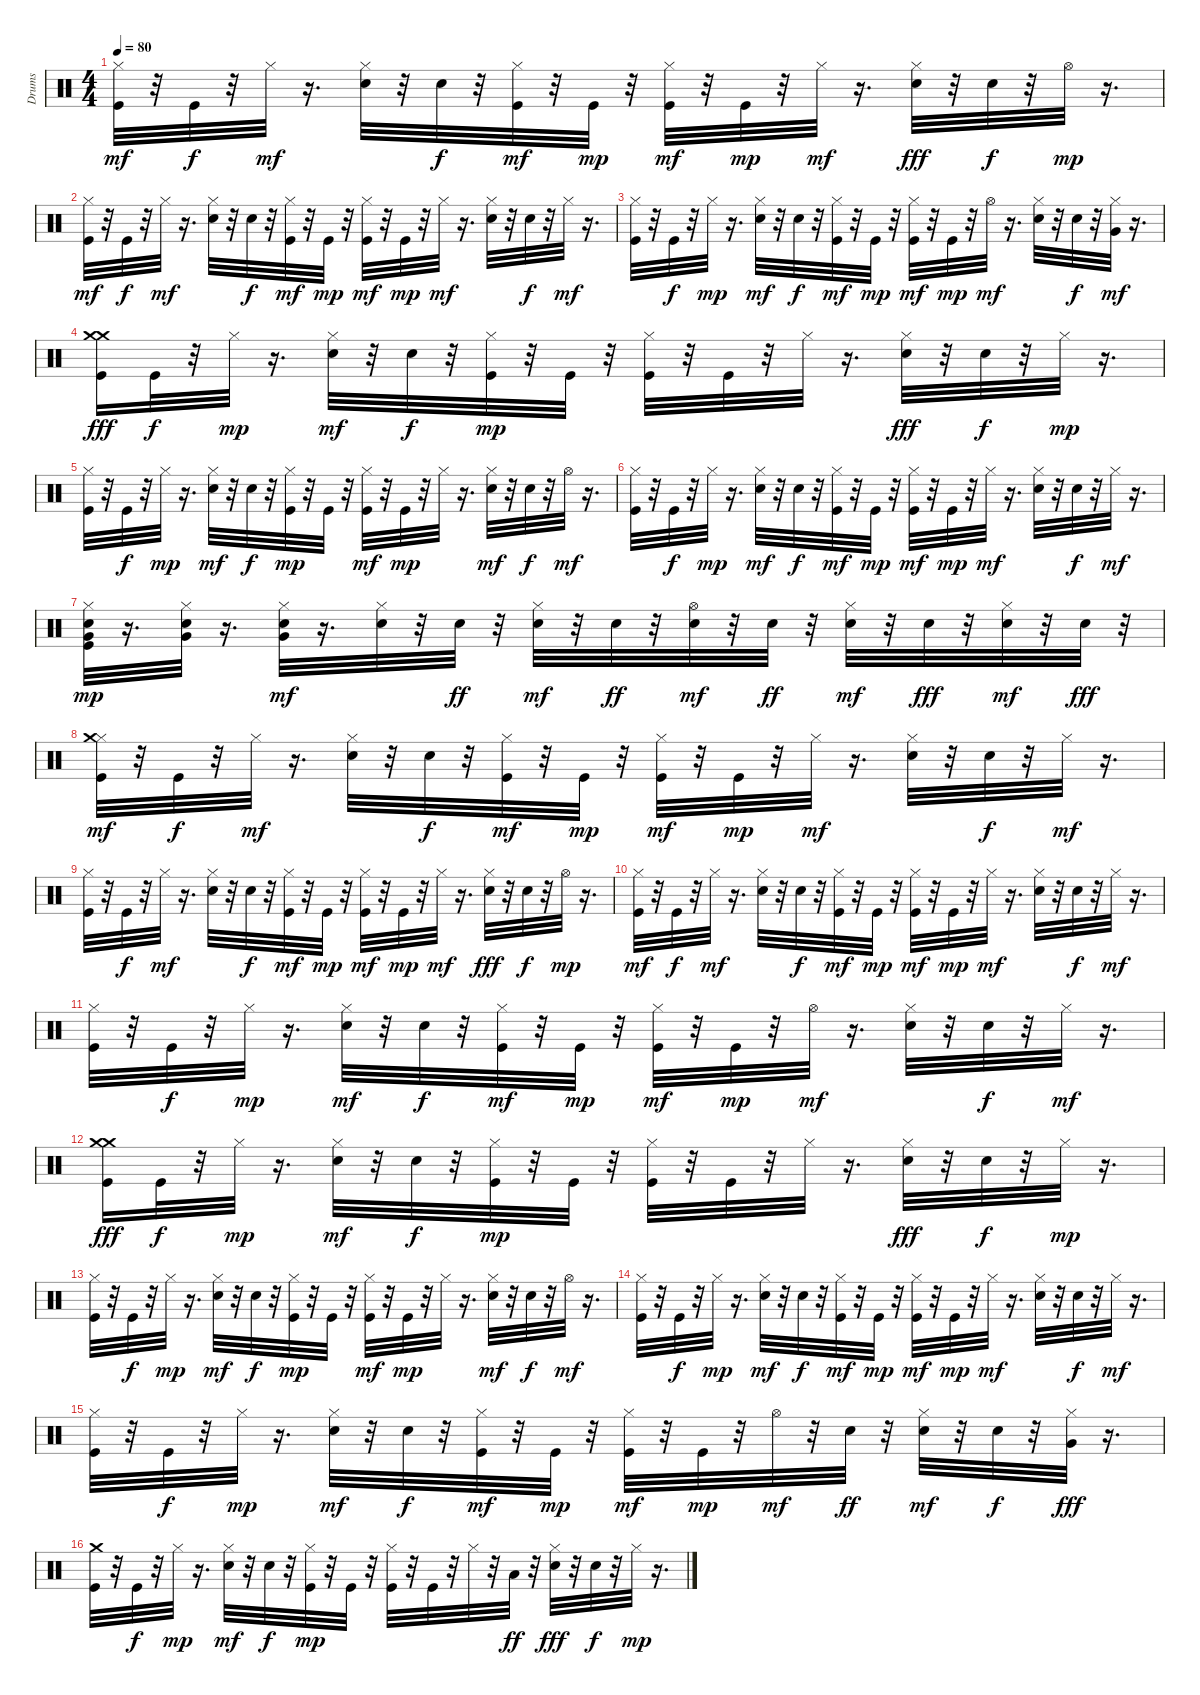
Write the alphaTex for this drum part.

\track ("Drums" "Drums") {instrument percussion}
\staff {score}
\articulation defaults
\ts (4 4)
\tempo 80
\clef neutral
\ks c
("Kick (hit)" "Hi-Hat (closed)").32{dy mf} r.32 "Kick (hit)".32{dy f} r.32 "Hi-Hat (closed)".32{dy mf} r.16{d} ("Snare (hit) 2" "Hi-Hat (closed)").32 r.32 "Snare (hit) 2".32{dy f} r.32 ("Kick (hit)" "Hi-Hat (closed)").32{dy mf} r.32 "Kick (hit)".32{dy mp} r.32 ("Kick (hit)" "Hi-Hat (closed)").32{dy mf} r.32 "Kick (hit)".32{dy mp} r.32 "Hi-Hat (closed)".32{dy mf} r.16{d} ("Snare (hit) 2" "Hi-Hat (closed)").32{dy fff} r.32 "Snare (hit) 2".32{dy f} r.32 "Hi-Hat (open)".32{dy mp} r.16{d} |
("Kick (hit)" "Hi-Hat (closed)").32{dy mf} r.32 "Kick (hit)".32{dy f} r.32 "Hi-Hat (closed)".32{dy mf} r.16{d} ("Snare (hit) 2" "Hi-Hat (closed)").32 r.32 "Snare (hit) 2".32{dy f} r.32 ("Kick (hit)" "Hi-Hat (closed)").32{dy mf} r.32 "Kick (hit)".32{dy mp} r.32 ("Kick (hit)" "Hi-Hat (closed)").32{dy mf} r.32 "Kick (hit)".32{dy mp} r.32 "Hi-Hat (closed)".32{dy mf} r.16{d} ("Snare (hit) 2" "Hi-Hat (closed)").32 r.32 "Snare (hit) 2".32{dy f} r.32 "Hi-Hat (closed)".32{dy mf} r.16{d} |
("Kick (hit)" "Hi-Hat (closed)").32 r.32 "Kick (hit)".32{dy f} r.32 "Hi-Hat (closed)".32{dy mp} r.16{d} ("Snare (hit) 2" "Hi-Hat (closed)").32{dy mf} r.32 "Snare (hit) 2".32{dy f} r.32 ("Kick (hit)" "Hi-Hat (closed)").32{dy mf} r.32 "Kick (hit)".32{dy mp} r.32 ("Kick (hit)" "Hi-Hat (closed)").32{dy mf} r.32 "Kick (hit)".32{dy mp} r.32 "Hi-Hat (open)".32{dy mf} r.16{d} ("Snare (hit) 2" "Hi-Hat (closed)").32 r.32 "Snare (hit) 2".32{dy f} r.32 ("Hi-Hat (closed)" "Very Low Tom (hit)").32{dy mf} r.16{d} |
("Kick (hit)" "Crash medium (hit)" "Crash medium (hit)").16{dy fff} "Kick (hit)".32{dy f} r.32 "Hi-Hat (closed)".32{dy mp} r.16{d} ("Snare (hit) 2" "Hi-Hat (closed)").32{dy mf} r.32 "Snare (hit) 2".32{dy f} r.32 ("Kick (hit)" "Hi-Hat (closed)").32{dy mp} r.32 "Kick (hit)".32 r.32 ("Kick (hit)" "Hi-Hat (closed)").32 r.32 "Kick (hit)".32 r.32 "Hi-Hat (closed)".32 r.16{d} ("Snare (hit) 2" "Hi-Hat (closed)").32{dy fff} r.32 "Snare (hit) 2".32{dy f} r.32 "Hi-Hat (closed)".32{dy mp} r.16{d} |
("Kick (hit)" "Hi-Hat (closed)").32 r.32 "Kick (hit)".32{dy f} r.32 "Hi-Hat (closed)".32{dy mp} r.16{d} ("Snare (hit) 2" "Hi-Hat (closed)").32{dy mf} r.32 "Snare (hit) 2".32{dy f} r.32 ("Kick (hit)" "Hi-Hat (closed)").32{dy mp} r.32 "Kick (hit)".32 r.32 ("Kick (hit)" "Hi-Hat (closed)").32{dy mf} r.32 "Kick (hit)".32{dy mp} r.32 "Hi-Hat (closed)".32 r.16{d} ("Snare (hit) 2" "Hi-Hat (closed)").32{dy mf} r.32 "Snare (hit) 2".32{dy f} r.32 "Hi-Hat (open)".32{dy mf} r.16{d} |
("Kick (hit)" "Hi-Hat (closed)").32 r.32 "Kick (hit)".32{dy f} r.32 "Hi-Hat (closed)".32{dy mp} r.16{d} ("Snare (hit) 2" "Hi-Hat (closed)").32{dy mf} r.32 "Snare (hit) 2".32{dy f} r.32 ("Kick (hit)" "Hi-Hat (closed)").32{dy mf} r.32 "Kick (hit)".32{dy mp} r.32 ("Kick (hit)" "Hi-Hat (closed)").32{dy mf} r.32 "Kick (hit)".32{dy mp} r.32 "Hi-Hat (closed)".32{dy mf} r.16{d} ("Snare (hit) 2" "Hi-Hat (closed)").32 r.32 "Snare (hit) 2".32{dy f} r.32 "Hi-Hat (closed)".32{dy mf} r.16{d} |
("Kick (hit)" "Snare (hit) 2" "Hi-Hat (closed)" "Very Low Tom (hit)").32{dy mp} r.16{d} ("Snare (hit) 2" "Hi-Hat (closed)" "Very Low Tom (hit)").32 r.16{d} ("Snare (hit) 2" "Hi-Hat (closed)" "Very Low Tom (hit)").32{dy mf} r.16{d} ("Snare (hit) 2" "Hi-Hat (closed)").32 r.32 "Snare (hit) 2".32{dy ff} r.32 ("Snare (hit) 2" "Hi-Hat (closed)").32{dy mf} r.32 "Snare (hit) 2".32{dy ff} r.32 ("Snare (hit) 2" "Hi-Hat (open)").32{dy mf} r.32 "Snare (hit) 2".32{dy ff} r.32 ("Snare (hit) 2" "Hi-Hat (closed)").32{dy mf} r.32 "Snare (hit) 2".32{dy fff} r.32 ("Snare (hit) 2" "Hi-Hat (closed)").32{dy mf} r.32 "Snare (hit) 2".32{dy fff} r.32 |
("Kick (hit)" "Hi-Hat (closed)" "Crash medium (hit)").32{dy mf} r.32 "Kick (hit)".32{dy f} r.32 "Hi-Hat (closed)".32{dy mf} r.16{d} ("Snare (hit) 2" "Hi-Hat (closed)").32 r.32 "Snare (hit) 2".32{dy f} r.32 ("Kick (hit)" "Hi-Hat (closed)").32{dy mf} r.32 "Kick (hit)".32{dy mp} r.32 ("Kick (hit)" "Hi-Hat (closed)").32{dy mf} r.32 "Kick (hit)".32{dy mp} r.32 "Hi-Hat (closed)".32{dy mf} r.16{d} ("Snare (hit) 2" "Hi-Hat (closed)").32 r.32 "Snare (hit) 2".32{dy f} r.32 "Hi-Hat (closed)".32{dy mf} r.16{d} |
("Kick (hit)" "Hi-Hat (closed)").32 r.32 "Kick (hit)".32{dy f} r.32 "Hi-Hat (closed)".32{dy mf} r.16{d} ("Snare (hit) 2" "Hi-Hat (closed)").32 r.32 "Snare (hit) 2".32{dy f} r.32 ("Kick (hit)" "Hi-Hat (closed)").32{dy mf} r.32 "Kick (hit)".32{dy mp} r.32 ("Kick (hit)" "Hi-Hat (closed)").32{dy mf} r.32 "Kick (hit)".32{dy mp} r.32 "Hi-Hat (closed)".32{dy mf} r.16{d} ("Snare (hit) 2" "Hi-Hat (closed)").32{dy fff} r.32 "Snare (hit) 2".32{dy f} r.32 "Hi-Hat (open)".32{dy mp} r.16{d} |
("Kick (hit)" "Hi-Hat (closed)").32{dy mf} r.32 "Kick (hit)".32{dy f} r.32 "Hi-Hat (closed)".32{dy mf} r.16{d} ("Snare (hit) 2" "Hi-Hat (closed)").32 r.32 "Snare (hit) 2".32{dy f} r.32 ("Kick (hit)" "Hi-Hat (closed)").32{dy mf} r.32 "Kick (hit)".32{dy mp} r.32 ("Kick (hit)" "Hi-Hat (closed)").32{dy mf} r.32 "Kick (hit)".32{dy mp} r.32 "Hi-Hat (closed)".32{dy mf} r.16{d} ("Snare (hit) 2" "Hi-Hat (closed)").32 r.32 "Snare (hit) 2".32{dy f} r.32 "Hi-Hat (closed)".32{dy mf} r.16{d} |
("Kick (hit)" "Hi-Hat (closed)").32 r.32 "Kick (hit)".32{dy f} r.32 "Hi-Hat (closed)".32{dy mp} r.16{d} ("Snare (hit) 2" "Hi-Hat (closed)").32{dy mf} r.32 "Snare (hit) 2".32{dy f} r.32 ("Kick (hit)" "Hi-Hat (closed)").32{dy mf} r.32 "Kick (hit)".32{dy mp} r.32 ("Kick (hit)" "Hi-Hat (closed)").32{dy mf} r.32 "Kick (hit)".32{dy mp} r.32 "Hi-Hat (open)".32{dy mf} r.16{d} ("Snare (hit) 2" "Hi-Hat (closed)").32 r.32 "Snare (hit) 2".32{dy f} r.32 "Hi-Hat (closed)".32{dy mf} r.16{d} |
("Kick (hit)" "Crash medium (hit)" "Crash medium (hit)").16{dy fff} "Kick (hit)".32{dy f} r.32 "Hi-Hat (closed)".32{dy mp} r.16{d} ("Snare (hit) 2" "Hi-Hat (closed)").32{dy mf} r.32 "Snare (hit) 2".32{dy f} r.32 ("Kick (hit)" "Hi-Hat (closed)").32{dy mp} r.32 "Kick (hit)".32 r.32 ("Kick (hit)" "Hi-Hat (closed)").32 r.32 "Kick (hit)".32 r.32 "Hi-Hat (closed)".32 r.16{d} ("Snare (hit) 2" "Hi-Hat (closed)").32{dy fff} r.32 "Snare (hit) 2".32{dy f} r.32 "Hi-Hat (closed)".32{dy mp} r.16{d} |
("Kick (hit)" "Hi-Hat (closed)").32 r.32 "Kick (hit)".32{dy f} r.32 "Hi-Hat (closed)".32{dy mp} r.16{d} ("Snare (hit) 2" "Hi-Hat (closed)").32{dy mf} r.32 "Snare (hit) 2".32{dy f} r.32 ("Kick (hit)" "Hi-Hat (closed)").32{dy mp} r.32 "Kick (hit)".32 r.32 ("Kick (hit)" "Hi-Hat (closed)").32{dy mf} r.32 "Kick (hit)".32{dy mp} r.32 "Hi-Hat (closed)".32 r.16{d} ("Snare (hit) 2" "Hi-Hat (closed)").32{dy mf} r.32 "Snare (hit) 2".32{dy f} r.32 "Hi-Hat (open)".32{dy mf} r.16{d} |
("Kick (hit)" "Hi-Hat (closed)").32 r.32 "Kick (hit)".32{dy f} r.32 "Hi-Hat (closed)".32{dy mp} r.16{d} ("Snare (hit) 2" "Hi-Hat (closed)").32{dy mf} r.32 "Snare (hit) 2".32{dy f} r.32 ("Kick (hit)" "Hi-Hat (closed)").32{dy mf} r.32 "Kick (hit)".32{dy mp} r.32 ("Kick (hit)" "Hi-Hat (closed)").32{dy mf} r.32 "Kick (hit)".32{dy mp} r.32 "Hi-Hat (closed)".32{dy mf} r.16{d} ("Snare (hit) 2" "Hi-Hat (closed)").32 r.32 "Snare (hit) 2".32{dy f} r.32 "Hi-Hat (closed)".32{dy mf} r.16{d} |
("Kick (hit)" "Hi-Hat (closed)").32 r.32 "Kick (hit)".32{dy f} r.32 "Hi-Hat (closed)".32{dy mp} r.16{d} ("Snare (hit) 2" "Hi-Hat (closed)").32{dy mf} r.32 "Snare (hit) 2".32{dy f} r.32 ("Kick (hit)" "Hi-Hat (closed)").32{dy mf} r.32 "Kick (hit)".32{dy mp} r.32 ("Kick (hit)" "Hi-Hat (closed)").32{dy mf} r.32 "Kick (hit)".32{dy mp} r.32 "Hi-Hat (open)".32{dy mf} r.32 "Snare (hit) 2".32{dy ff} r.32 ("Snare (hit) 2" "Hi-Hat (closed)").32{dy mf} r.32 "Snare (hit) 2".32{dy f} r.32 ("Hi-Hat (closed)" "Very Low Tom (hit)").32{dy fff} r.16{d} |
("Kick (hit)" "Crash medium (hit)").32 r.32 "Kick (hit)".32{dy f} r.32 "Hi-Hat (closed)".32{dy mp} r.16{d} ("Snare (hit) 2" "Hi-Hat (closed)").32{dy mf} r.32 "Snare (hit) 2".32{dy f} r.32 ("Kick (hit)" "Hi-Hat (closed)").32{dy mp} r.32 "Kick (hit)".32 r.32 ("Kick (hit)" "Hi-Hat (closed)").32 r.32 "Kick (hit)".32 r.32 "Hi-Hat (closed)".32 r.32 "Low Tom (hit)".32{dy ff} r.32 ("Snare (hit) 2" "Hi-Hat (closed)").32{dy fff} r.32 "Snare (hit) 2".32{dy f} r.32 "Hi-Hat (closed)".32{dy mp} r.16{d}
